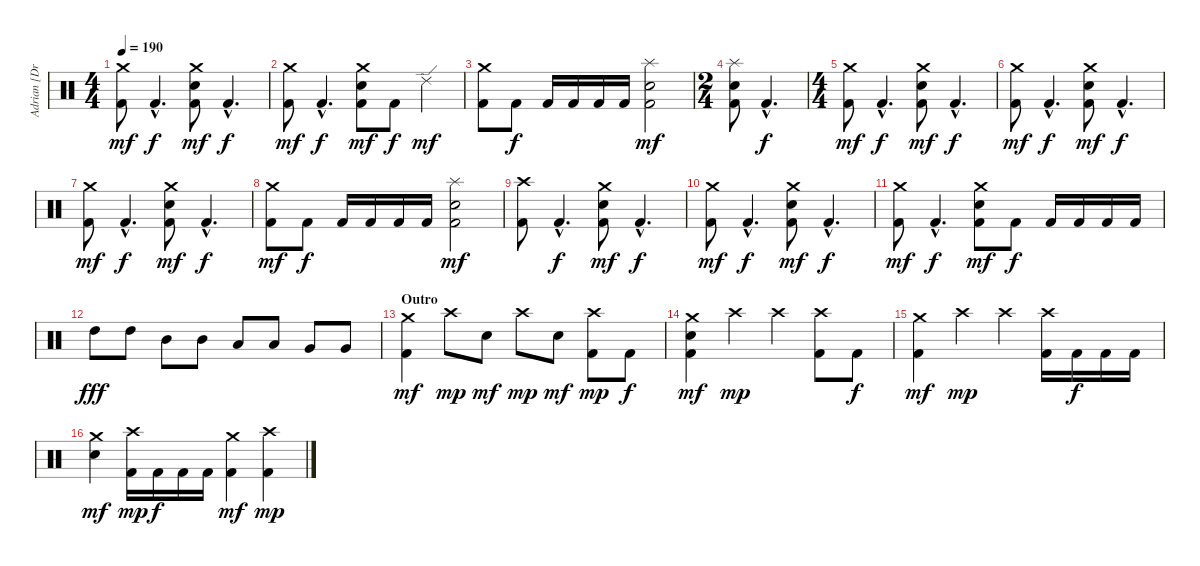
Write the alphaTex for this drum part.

\track ("Adrian [Drums]" "Adrian [Dr") {instrument percussion}
\staff {score}
\articulation defaults
\ts (4 4)
\tempo 190
\clef neutral
\ks c
("Crash medium (hit)" "Kick (hit) 2").8{dy mf} "Kick (hit) 2"{hac}.4{d dy f} ("Crash medium (hit)" "Electric Snare (hit)" "Kick (hit) 2").8{dy mf} "Kick (hit) 2"{hac}.4{d dy f} |
("Crash medium (hit)" "Kick (hit) 2").8{dy mf} "Kick (hit) 2"{hac}.4{d dy f} ("Crash medium (hit)" "Electric Snare (hit)" "Kick (hit) 2").8{dy mf} "Kick (hit) 2".8{dy f} "Ride (edge) 2".4{dy mf} |
("Crash medium (hit)" "Kick (hit) 2").8 "Kick (hit) 2".8{dy f} "Kick (hit) 2".16 "Kick (hit) 2".16 "Kick (hit) 2".16 "Kick (hit) 2".16 ("Splash (hit)" "Electric Snare (hit)" "Kick (hit) 2").2{dy mf} |
\ts (2 4)
("Splash (hit)" "Electric Snare (hit)" "Kick (hit) 2").8 "Kick (hit) 2"{hac}.4{d dy f} |
\ts (4 4)
("Crash medium (hit)" "Kick (hit) 2").8{dy mf} "Kick (hit) 2"{hac}.4{d dy f} ("Crash medium (hit)" "Electric Snare (hit)" "Kick (hit) 2").8{dy mf} "Kick (hit) 2"{hac}.4{d dy f} |
("Crash medium (hit)" "Kick (hit) 2").8{dy mf} "Kick (hit) 2"{hac}.4{d dy f} ("Crash medium (hit)" "Electric Snare (hit)" "Kick (hit) 2").8{dy mf} "Kick (hit) 2"{hac}.4{d dy f} |
("Crash medium (hit)" "Kick (hit) 2").8{dy mf} "Kick (hit) 2"{hac}.4{d dy f} ("Crash medium (hit)" "Electric Snare (hit)" "Kick (hit) 2").8{dy mf} "Kick (hit) 2"{hac}.4{d dy f} |
("Crash medium (hit)" "Kick (hit) 2").8{dy mf} "Kick (hit) 2".8{dy f} "Kick (hit) 2".16 "Kick (hit) 2".16 "Kick (hit) 2".16 "Kick (hit) 2".16 ("Splash (hit)" "Electric Snare (hit)" "Kick (hit) 2").2{dy mf} |
("Crash high (hit)" "Kick (hit) 2").8 "Kick (hit) 2"{hac}.4{d dy f} ("Crash medium (hit)" "Electric Snare (hit)" "Kick (hit) 2").8{dy mf} "Kick (hit) 2"{hac}.4{d dy f} |
("Crash medium (hit)" "Kick (hit) 2").8{dy mf} "Kick (hit) 2"{hac}.4{d dy f} ("Crash medium (hit)" "Electric Snare (hit)" "Kick (hit) 2").8{dy mf} "Kick (hit) 2"{hac}.4{d dy f} |
("Crash medium (hit)" "Kick (hit) 2").8{dy mf} "Kick (hit) 2"{hac}.4{d dy f} ("Crash medium (hit)" "Electric Snare (hit)" "Kick (hit) 2").8{dy mf} "Kick (hit) 2".8{dy f} "Kick (hit) 2".16 "Kick (hit) 2".16 "Kick (hit) 2".16 "Kick (hit) 2".16 |
"High Tom (hit)".8{dy fff} "High Tom (hit)".8 "Mid Tom (hit)".8 "Mid Tom (hit)".8 "Low Tom (hit)".8 "Low Tom (hit)".8 "Very Low Tom (hit)".8 "Very Low Tom (hit)".8 |
\section ("" "Outro")
("Crash medium (hit)" "Kick (hit) 2").4{dy mf} "Crash high (hit)".8{dy mp} "Electric Snare (hit)".8{dy mf} "Crash high (hit)".8{dy mp} "Electric Snare (hit)".8{dy mf} ("Crash high (hit)" "Kick (hit) 2").8{dy mp} "Kick (hit) 2".8{dy f} |
("Crash medium (hit)" "Electric Snare (hit)" "Kick (hit) 2").4{dy mf} "Crash high (hit)".4{dy mp} "Crash high (hit)".4 ("Crash high (hit)" "Kick (hit) 2").8 "Kick (hit) 2".8{dy f} |
("Crash medium (hit)" "Kick (hit) 2").4{dy mf} "Crash high (hit)".4{dy mp} "Crash high (hit)".4 ("Crash high (hit)" "Kick (hit) 2").16 "Kick (hit) 2".16{dy f} "Kick (hit) 2".16 "Kick (hit) 2".16 |
("Crash medium (hit)" "Electric Snare (hit)").4{dy mf} ("Crash high (hit)" "Kick (hit) 2").16{dy mp} "Kick (hit) 2".16{dy f} "Kick (hit) 2".16 "Kick (hit) 2".16 ("Crash medium (hit)" "Kick (hit) 2").4{dy mf} ("Crash high (hit)" "Kick (hit) 2").4{dy mp}
